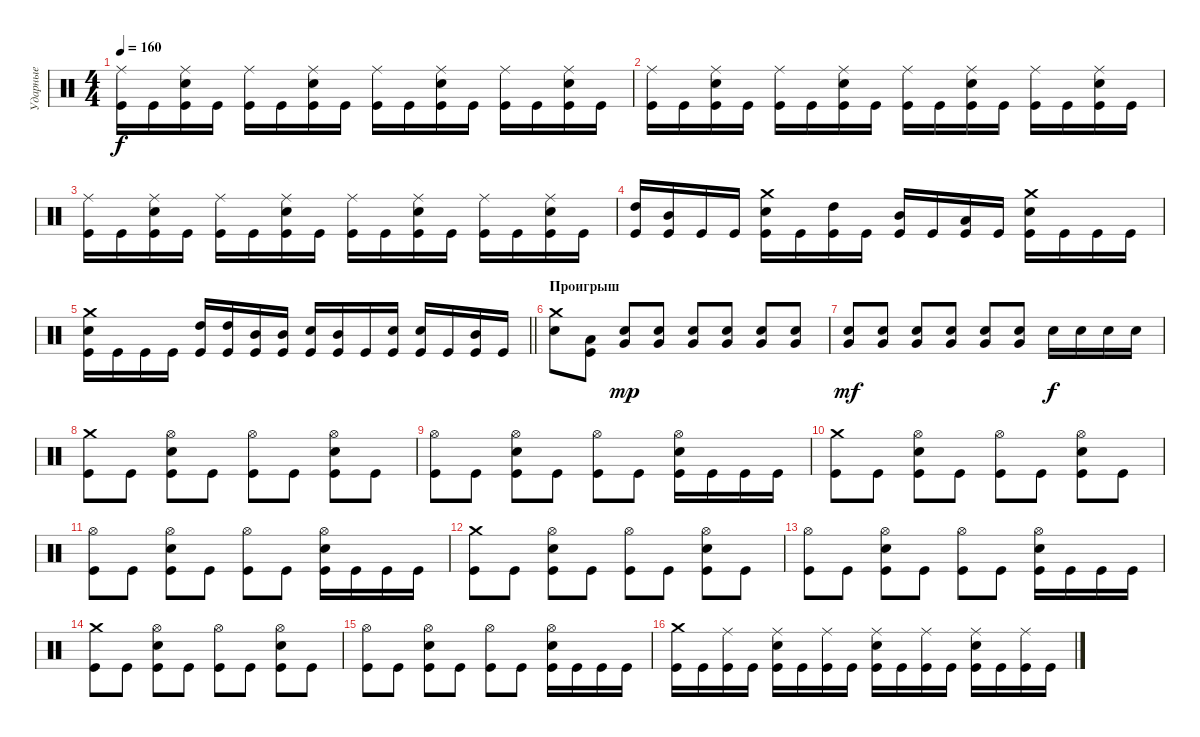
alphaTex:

\track ("Ударные" "Ударные") {instrument percussion}
\staff {score}
\articulation defaults
\ts (4 4)
\tempo 160
\clef neutral
\ks c
("Kick (hit)" "Ride (middle)").16{dy f} "Kick (hit)".16 ("Kick (hit)" "Snare (hit) 2" "Ride (middle)").16 "Kick (hit)".16 ("Kick (hit)" "Ride (middle)").16 "Kick (hit)".16 ("Kick (hit)" "Snare (hit) 2" "Ride (middle)").16 "Kick (hit)".16 ("Kick (hit)" "Ride (middle)").16 "Kick (hit)".16 ("Kick (hit)" "Snare (hit) 2" "Ride (middle)").16 "Kick (hit)".16 ("Kick (hit)" "Ride (middle)").16 "Kick (hit)".16 ("Kick (hit)" "Snare (hit) 2" "Ride (middle)").16 "Kick (hit)".16 |
("Kick (hit)" "Ride (middle)").16 "Kick (hit)".16 ("Kick (hit)" "Snare (hit) 2" "Ride (middle)").16 "Kick (hit)".16 ("Kick (hit)" "Ride (middle)").16 "Kick (hit)".16 ("Kick (hit)" "Snare (hit) 2" "Ride (middle)").16 "Kick (hit)".16 ("Kick (hit)" "Ride (middle)").16 "Kick (hit)".16 ("Kick (hit)" "Snare (hit) 2" "Ride (middle)").16 "Kick (hit)".16 ("Kick (hit)" "Ride (middle)").16 "Kick (hit)".16 ("Kick (hit)" "Snare (hit) 2" "Ride (middle)").16 "Kick (hit)".16 |
("Kick (hit)" "Ride (middle)").16 "Kick (hit)".16 ("Kick (hit)" "Snare (hit) 2" "Ride (middle)").16 "Kick (hit)".16 ("Kick (hit)" "Ride (middle)").16 "Kick (hit)".16 ("Kick (hit)" "Snare (hit) 2" "Ride (middle)").16 "Kick (hit)".16 ("Kick (hit)" "Ride (middle)").16 "Kick (hit)".16 ("Kick (hit)" "Snare (hit) 2" "Ride (middle)").16 "Kick (hit)".16 ("Kick (hit)" "Ride (middle)").16 "Kick (hit)".16 ("Kick (hit)" "Snare (hit) 2" "Ride (middle)").16 "Kick (hit)".16 |
("Kick (hit)" "High Tom (hit)").16 ("Kick (hit)" "Mid Tom (hit)").16 "Kick (hit)".16 "Kick (hit)".16 ("Kick (hit)" "Snare (hit) 2" "Crash medium (hit)").16 "Kick (hit)".16 ("Kick (hit)" "High Tom (hit)").16 "Kick (hit)".16 ("Kick (hit)" "Mid Tom (hit)").16 "Kick (hit)".16 ("Kick (hit)" "Low Tom (hit)").16 "Kick (hit)".16 ("Kick (hit)" "Snare (hit) 2" "Crash medium (hit)").16 "Kick (hit)".16 "Kick (hit)".16 "Kick (hit)".16 |
\barLineRight lightlight
("Kick (hit)" "Snare (hit) 2" "Crash medium (hit)").16 "Kick (hit)".16 "Kick (hit)".16 "Kick (hit)".16 ("Kick (hit)" "High Tom (hit)").16 ("Kick (hit)" "High Tom (hit)").16 ("Kick (hit)" "Mid Tom (hit)").16 ("Kick (hit)" "Mid Tom (hit)").16 ("Kick (hit)" "Snare (hit) 2").16 ("Kick (hit)" "Mid Tom (hit)").16 "Kick (hit)".16 ("Kick (hit)" "Snare (hit) 2").16 ("Kick (hit)" "Snare (hit) 2").16 "Kick (hit)".16 ("Kick (hit)" "Mid Tom (hit)").16 "Kick (hit)".16 |
\section ("" "Проигрыш")
("Snare (hit) 2" "Crash medium (hit)").8 ("Kick (hit)" "Low Tom (hit)").8 ("Snare (hit) 2" "Very Low Tom (hit)").8{dy mp} ("Snare (hit) 2" "Very Low Tom (hit)").8 ("Snare (hit) 2" "Very Low Tom (hit)").8 ("Snare (hit) 2" "Very Low Tom (hit)").8 ("Snare (hit) 2" "Very Low Tom (hit)").8 ("Snare (hit) 2" "Very Low Tom (hit)").8 |
("Snare (hit) 2" "Very Low Tom (hit)").8{dy mf} ("Snare (hit) 2" "Very Low Tom (hit)").8 ("Snare (hit) 2" "Very Low Tom (hit)").8 ("Snare (hit) 2" "Very Low Tom (hit)").8 ("Snare (hit) 2" "Very Low Tom (hit)").8 ("Snare (hit) 2" "Very Low Tom (hit)").8 "Snare (hit) 2".16{dy f} "Snare (hit) 2".16 "Snare (hit) 2".16 "Snare (hit) 2".16 |
("Kick (hit)" "Crash medium (hit)").8 "Kick (hit)".8 ("Kick (hit)" "Snare (hit) 2" "Hi-Hat (open)").8 "Kick (hit)".8 ("Kick (hit)" "Hi-Hat (open)").8 "Kick (hit)".8 ("Kick (hit)" "Snare (hit) 2" "Hi-Hat (open)").8 "Kick (hit)".8 |
("Kick (hit)" "Hi-Hat (open)").8 "Kick (hit)".8 ("Kick (hit)" "Snare (hit) 2" "Hi-Hat (open)").8 "Kick (hit)".8 ("Kick (hit)" "Hi-Hat (open)").8 "Kick (hit)".8 ("Kick (hit)" "Snare (hit) 2" "Hi-Hat (open)").16 "Kick (hit)".16 "Kick (hit)".16 "Kick (hit)".16 |
("Kick (hit)" "Crash medium (hit)").8 "Kick (hit)".8 ("Kick (hit)" "Snare (hit) 2" "Hi-Hat (open)").8 "Kick (hit)".8 ("Kick (hit)" "Hi-Hat (open)").8 "Kick (hit)".8 ("Kick (hit)" "Snare (hit) 2" "Hi-Hat (open)").8 "Kick (hit)".8 |
("Kick (hit)" "Hi-Hat (open)").8 "Kick (hit)".8 ("Kick (hit)" "Snare (hit) 2" "Hi-Hat (open)").8 "Kick (hit)".8 ("Kick (hit)" "Hi-Hat (open)").8 "Kick (hit)".8 ("Kick (hit)" "Snare (hit) 2" "Hi-Hat (open)").16 "Kick (hit)".16 "Kick (hit)".16 "Kick (hit)".16 |
("Kick (hit)" "Crash medium (hit)").8 "Kick (hit)".8 ("Kick (hit)" "Snare (hit) 2" "Hi-Hat (open)").8 "Kick (hit)".8 ("Kick (hit)" "Hi-Hat (open)").8 "Kick (hit)".8 ("Kick (hit)" "Snare (hit) 2" "Hi-Hat (open)").8 "Kick (hit)".8 |
("Kick (hit)" "Hi-Hat (open)").8 "Kick (hit)".8 ("Kick (hit)" "Snare (hit) 2" "Hi-Hat (open)").8 "Kick (hit)".8 ("Kick (hit)" "Hi-Hat (open)").8 "Kick (hit)".8 ("Kick (hit)" "Snare (hit) 2" "Hi-Hat (open)").16 "Kick (hit)".16 "Kick (hit)".16 "Kick (hit)".16 |
("Kick (hit)" "Crash medium (hit)").8 "Kick (hit)".8 ("Kick (hit)" "Snare (hit) 2" "Hi-Hat (open)").8 "Kick (hit)".8 ("Kick (hit)" "Hi-Hat (open)").8 "Kick (hit)".8 ("Kick (hit)" "Snare (hit) 2" "Hi-Hat (open)").8 "Kick (hit)".8 |
("Kick (hit)" "Hi-Hat (open)").8 "Kick (hit)".8 ("Kick (hit)" "Snare (hit) 2" "Hi-Hat (open)").8 "Kick (hit)".8 ("Kick (hit)" "Hi-Hat (open)").8 "Kick (hit)".8 ("Kick (hit)" "Snare (hit) 2" "Hi-Hat (open)").16 "Kick (hit)".16 "Kick (hit)".16 "Kick (hit)".16 |
("Kick (hit)" "Crash medium (hit)").16 "Kick (hit)".16 ("Kick (hit)" "Ride (middle)").16 "Kick (hit)".16 ("Kick (hit)" "Snare (hit) 2" "Ride (middle)").16 "Kick (hit)".16 ("Kick (hit)" "Ride (middle)").16 "Kick (hit)".16 ("Kick (hit)" "Snare (hit) 2" "Ride (middle)").16 "Kick (hit)".16 ("Kick (hit)" "Ride (middle)").16 "Kick (hit)".16 ("Kick (hit)" "Snare (hit) 2" "Ride (middle)").16 "Kick (hit)".16 ("Kick (hit)" "Ride (middle)").16 "Kick (hit)".16
